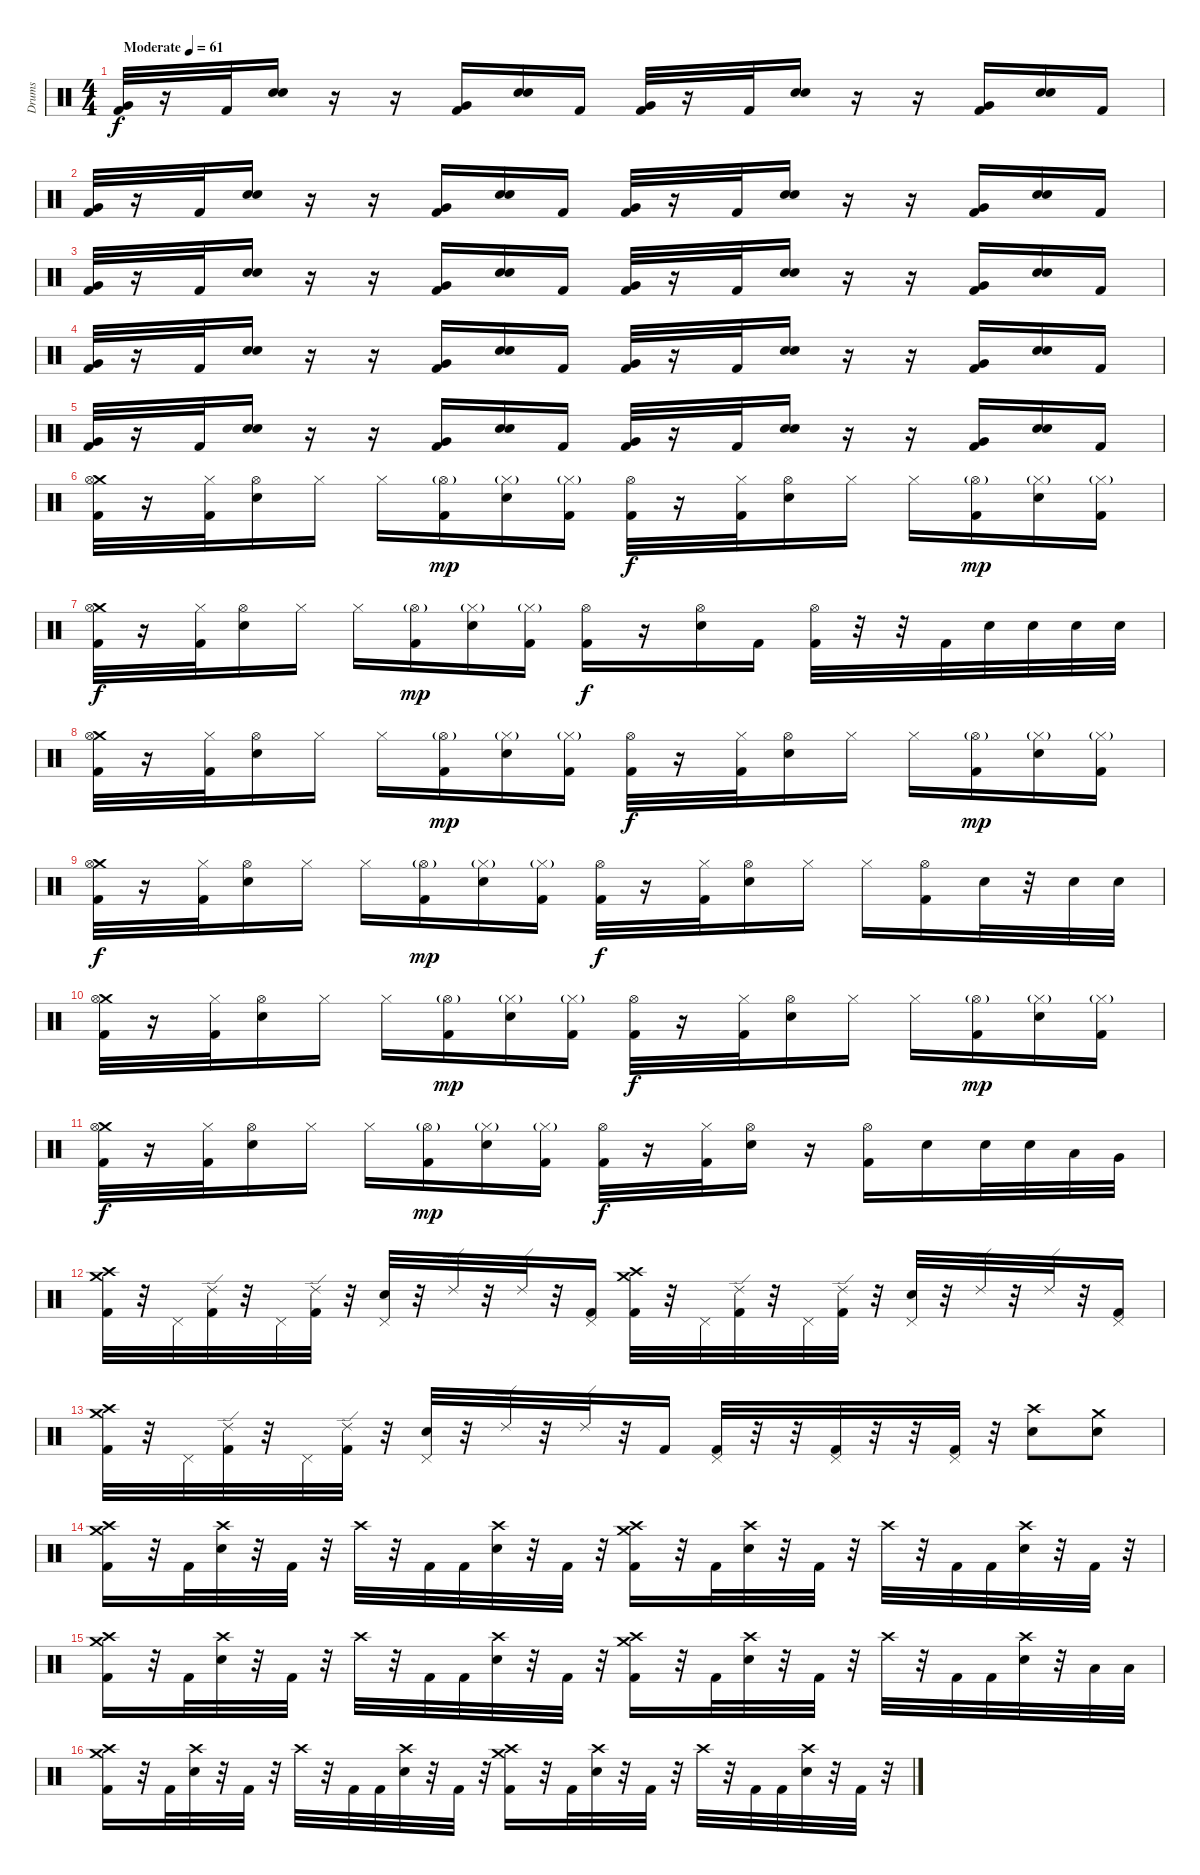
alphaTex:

\track ("Drums" "Drums") {instrument percussion}
\staff {score}
\articulation defaults
\ts (4 4)
\tempo (61 "Moderate")
\clef neutral
\ks c
("Very Low Tom (hit)" "Kick (hit) 2").32{dy f} r.16 "Kick (hit) 2".32 ("Electric Snare (hit)" "Electric Snare (hit)").16 r.16 r.16 ("Very Low Tom (hit)" "Kick (hit) 2").16 ("Electric Snare (hit)" "Electric Snare (hit)").16 "Kick (hit) 2".16 ("Very Low Tom (hit)" "Kick (hit) 2").32 r.16 "Kick (hit) 2".32 ("Electric Snare (hit)" "Electric Snare (hit)").16 r.16 r.16 ("Very Low Tom (hit)" "Kick (hit) 2").16 ("Electric Snare (hit)" "Electric Snare (hit)").16 "Kick (hit) 2".16 |
("Very Low Tom (hit)" "Kick (hit) 2").32 r.16 "Kick (hit) 2".32 ("Electric Snare (hit)" "Electric Snare (hit)").16 r.16 r.16 ("Very Low Tom (hit)" "Kick (hit) 2").16 ("Electric Snare (hit)" "Electric Snare (hit)").16 "Kick (hit) 2".16 ("Very Low Tom (hit)" "Kick (hit) 2").32 r.16 "Kick (hit) 2".32 ("Electric Snare (hit)" "Electric Snare (hit)").16 r.16 r.16 ("Very Low Tom (hit)" "Kick (hit) 2").16 ("Electric Snare (hit)" "Electric Snare (hit)").16 "Kick (hit) 2".16 |
("Very Low Tom (hit)" "Kick (hit) 2").32 r.16 "Kick (hit) 2".32 ("Electric Snare (hit)" "Electric Snare (hit)").16 r.16 r.16 ("Very Low Tom (hit)" "Kick (hit) 2").16 ("Electric Snare (hit)" "Electric Snare (hit)").16 "Kick (hit) 2".16 ("Very Low Tom (hit)" "Kick (hit) 2").32 r.16 "Kick (hit) 2".32 ("Electric Snare (hit)" "Electric Snare (hit)").16 r.16 r.16 ("Very Low Tom (hit)" "Kick (hit) 2").16 ("Electric Snare (hit)" "Electric Snare (hit)").16 "Kick (hit) 2".16 |
("Very Low Tom (hit)" "Kick (hit) 2").32 r.16 "Kick (hit) 2".32 ("Electric Snare (hit)" "Electric Snare (hit)").16 r.16 r.16 ("Very Low Tom (hit)" "Kick (hit) 2").16 ("Electric Snare (hit)" "Electric Snare (hit)").16 "Kick (hit) 2".16 ("Very Low Tom (hit)" "Kick (hit) 2").32 r.16 "Kick (hit) 2".32 ("Electric Snare (hit)" "Electric Snare (hit)").16 r.16 r.16 ("Very Low Tom (hit)" "Kick (hit) 2").16 ("Electric Snare (hit)" "Electric Snare (hit)").16 "Kick (hit) 2".16 |
("Very Low Tom (hit)" "Kick (hit) 2").32 r.16 "Kick (hit) 2".32 ("Electric Snare (hit)" "Electric Snare (hit)").16 r.16 r.16 ("Very Low Tom (hit)" "Kick (hit) 2").16 ("Electric Snare (hit)" "Electric Snare (hit)").16 "Kick (hit) 2".16 ("Very Low Tom (hit)" "Kick (hit) 2").32 r.16 "Kick (hit) 2".32 ("Electric Snare (hit)" "Electric Snare (hit)").16 r.16 r.16 ("Very Low Tom (hit)" "Kick (hit) 2").16 ("Electric Snare (hit)" "Electric Snare (hit)").16 "Kick (hit) 2".16 |
("Crash medium (hit)" "Hi-Hat (open)" "Kick (hit) 2").32 r.16 ("Hi-Hat (closed)" "Kick (hit) 2").32 ("Hi-Hat (open)" "Electric Snare (hit)").16 "Hi-Hat (closed)".16 "Hi-Hat (closed)".16 ("Hi-Hat (open)"{g} "Kick (hit) 2").16{dy mp} ("Hi-Hat (closed)"{g} "Electric Snare (hit)").16 ("Hi-Hat (closed)"{g} "Kick (hit) 2").16 ("Hi-Hat (open)" "Kick (hit) 2").32{dy f} r.16 ("Hi-Hat (closed)" "Kick (hit) 2").32 ("Hi-Hat (open)" "Electric Snare (hit)").16 "Hi-Hat (closed)".16 "Hi-Hat (closed)".16 ("Hi-Hat (open)"{g} "Kick (hit) 2").16{dy mp} ("Hi-Hat (closed)"{g} "Electric Snare (hit)").16 ("Hi-Hat (closed)"{g} "Kick (hit) 2").16 |
("Crash medium (hit)" "Hi-Hat (open)" "Kick (hit) 2").32{dy f} r.16 ("Hi-Hat (closed)" "Kick (hit) 2").32 ("Hi-Hat (open)" "Electric Snare (hit)").16 "Hi-Hat (closed)".16 "Hi-Hat (closed)".16 ("Hi-Hat (open)"{g} "Kick (hit) 2").16{dy mp} ("Hi-Hat (closed)"{g} "Electric Snare (hit)").16 ("Hi-Hat (closed)"{g} "Kick (hit) 2").16 ("Hi-Hat (open)" "Kick (hit) 2").16{dy f} r.16 ("Hi-Hat (open)" "Electric Snare (hit)").16 "Kick (hit) 2".16 ("Hi-Hat (open)" "Kick (hit) 2").32 r.32 r.32 "Kick (hit) 2".32 "Electric Snare (hit)".32 "Electric Snare (hit)".32 "Electric Snare (hit)".32 "Electric Snare (hit)".32 |
("Crash medium (hit)" "Hi-Hat (open)" "Kick (hit) 2").32 r.16 ("Hi-Hat (closed)" "Kick (hit) 2").32 ("Hi-Hat (open)" "Electric Snare (hit)").16 "Hi-Hat (closed)".16 "Hi-Hat (closed)".16 ("Hi-Hat (open)"{g} "Kick (hit) 2").16{dy mp} ("Hi-Hat (closed)"{g} "Electric Snare (hit)").16 ("Hi-Hat (closed)"{g} "Kick (hit) 2").16 ("Hi-Hat (open)" "Kick (hit) 2").32{dy f} r.16 ("Hi-Hat (closed)" "Kick (hit) 2").32 ("Hi-Hat (open)" "Electric Snare (hit)").16 "Hi-Hat (closed)".16 "Hi-Hat (closed)".16 ("Hi-Hat (open)"{g} "Kick (hit) 2").16{dy mp} ("Hi-Hat (closed)"{g} "Electric Snare (hit)").16 ("Hi-Hat (closed)"{g} "Kick (hit) 2").16 |
("Crash medium (hit)" "Hi-Hat (open)" "Kick (hit) 2").32{dy f} r.16 ("Hi-Hat (closed)" "Kick (hit) 2").32 ("Hi-Hat (open)" "Electric Snare (hit)").16 "Hi-Hat (closed)".16 "Hi-Hat (closed)".16 ("Hi-Hat (open)"{g} "Kick (hit) 2").16{dy mp} ("Hi-Hat (closed)"{g} "Electric Snare (hit)").16 ("Hi-Hat (closed)"{g} "Kick (hit) 2").16 ("Hi-Hat (open)" "Kick (hit) 2").32{dy f} r.16 ("Hi-Hat (closed)" "Kick (hit) 2").32 ("Hi-Hat (open)" "Electric Snare (hit)").16 "Hi-Hat (closed)".16 "Hi-Hat (closed)".16 ("Hi-Hat (open)" "Kick (hit) 2").16 "Electric Snare (hit)".32 r.32 "Electric Snare (hit)".32 "Electric Snare (hit)".32 |
("Crash medium (hit)" "Hi-Hat (open)" "Kick (hit) 2").32 r.16 ("Hi-Hat (closed)" "Kick (hit) 2").32 ("Hi-Hat (open)" "Electric Snare (hit)").16 "Hi-Hat (closed)".16 "Hi-Hat (closed)".16 ("Hi-Hat (open)"{g} "Kick (hit) 2").16{dy mp} ("Hi-Hat (closed)"{g} "Electric Snare (hit)").16 ("Hi-Hat (closed)"{g} "Kick (hit) 2").16 ("Hi-Hat (open)" "Kick (hit) 2").32{dy f} r.16 ("Hi-Hat (closed)" "Kick (hit) 2").32 ("Hi-Hat (open)" "Electric Snare (hit)").16 "Hi-Hat (closed)".16 "Hi-Hat (closed)".16 ("Hi-Hat (open)"{g} "Kick (hit) 2").16{dy mp} ("Hi-Hat (closed)"{g} "Electric Snare (hit)").16 ("Hi-Hat (closed)"{g} "Kick (hit) 2").16 |
("Crash medium (hit)" "Hi-Hat (open)" "Kick (hit) 2").32{dy f} r.16 ("Hi-Hat (closed)" "Kick (hit) 2").32 ("Hi-Hat (open)" "Electric Snare (hit)").16 "Hi-Hat (closed)".16 "Hi-Hat (closed)".16 ("Hi-Hat (open)"{g} "Kick (hit) 2").16{dy mp} ("Hi-Hat (closed)"{g} "Electric Snare (hit)").16 ("Hi-Hat (closed)"{g} "Kick (hit) 2").16 ("Hi-Hat (open)" "Kick (hit) 2").32{dy f} r.16 ("Hi-Hat (closed)" "Kick (hit) 2").32 ("Hi-Hat (open)" "Electric Snare (hit)").16 r.16 ("Hi-Hat (open)" "Kick (hit) 2").16 "Electric Snare (hit)".16 "Electric Snare (hit)".32 "Electric Snare (hit)".32 "Low Tom (hit)".32 "Very Low Tom (hit)".32 |
("Crash high (hit)" "Crash medium (hit)" "Kick (hit) 2").32 r.32 "Pedal Hi-Hat (hit)".32 ("Ride (edge) 2" "Kick (hit) 2").32 r.32 "Pedal Hi-Hat (hit)".32 ("Ride (edge) 2" "Kick (hit) 2").32 r.32 ("Pedal Hi-Hat (hit)" "Electric Snare (hit)").32 r.32 "Ride (edge) 2".32 r.32 "Ride (edge) 2".32 r.32 ("Pedal Hi-Hat (hit)" "Kick (hit) 2").16 ("Crash high (hit)" "Crash medium (hit)" "Kick (hit) 2").32 r.32 "Pedal Hi-Hat (hit)".32 ("Ride (edge) 2" "Kick (hit) 2").32 r.32 "Pedal Hi-Hat (hit)".32 ("Ride (edge) 2" "Kick (hit) 2").32 r.32 ("Pedal Hi-Hat (hit)" "Electric Snare (hit)").32 r.32 "Ride (edge) 2".32 r.32 "Ride (edge) 2".32 r.32 ("Pedal Hi-Hat (hit)" "Kick (hit) 2").16 |
("Crash high (hit)" "Crash medium (hit)" "Kick (hit) 2").32 r.32 "Pedal Hi-Hat (hit)".32 ("Ride (edge) 2" "Kick (hit) 2").32 r.32 "Pedal Hi-Hat (hit)".32 ("Ride (edge) 2" "Kick (hit) 2").32 r.32 ("Pedal Hi-Hat (hit)" "Electric Snare (hit)").32 r.32 "Ride (edge) 2".32 r.32 "Ride (edge) 2".32 r.32 "Kick (hit) 2".16 ("Pedal Hi-Hat (hit)" "Kick (hit) 2").32 r.32 r.32 ("Pedal Hi-Hat (hit)" "Kick (hit) 2").32 r.32 r.32 ("Pedal Hi-Hat (hit)" "Kick (hit) 2").32 r.32 ("Crash high (hit)" "Electric Snare (hit)").8 ("Crash medium (hit)" "Electric Snare (hit)").8 |
("Crash high (hit)" "Crash medium (hit)" "Kick (hit) 2").16 r.32 "Kick (hit) 2".32 ("Crash high (hit)" "Electric Snare (hit)").32 r.32 "Kick (hit) 2".32 r.32 "Crash high (hit)".32 r.32 "Kick (hit) 2".32 "Kick (hit) 2".32 ("Crash high (hit)" "Electric Snare (hit)").32 r.32 "Kick (hit) 2".32 r.32 ("Crash high (hit)" "Crash medium (hit)" "Kick (hit) 2").16 r.32 "Kick (hit) 2".32 ("Crash high (hit)" "Electric Snare (hit)").32 r.32 "Kick (hit) 2".32 r.32 "Crash high (hit)".32 r.32 "Kick (hit) 2".32 "Kick (hit) 2".32 ("Crash high (hit)" "Electric Snare (hit)").32 r.32 "Kick (hit) 2".32 r.32 |
("Crash high (hit)" "Crash medium (hit)" "Kick (hit) 2").16 r.32 "Kick (hit) 2".32 ("Crash high (hit)" "Electric Snare (hit)").32 r.32 "Kick (hit) 2".32 r.32 "Crash high (hit)".32 r.32 "Kick (hit) 2".32 "Kick (hit) 2".32 ("Crash high (hit)" "Electric Snare (hit)").32 r.32 "Kick (hit) 2".32 r.32 ("Crash high (hit)" "Crash medium (hit)" "Kick (hit) 2").16 r.32 "Kick (hit) 2".32 ("Crash high (hit)" "Electric Snare (hit)").32 r.32 "Kick (hit) 2".32 r.32 "Crash high (hit)".32 r.32 "Kick (hit) 2".32 "Kick (hit) 2".32 ("Crash high (hit)" "Electric Snare (hit)").32 r.32 "Low Tom (hit)".32 "Low Tom (hit)".32 |
("Crash high (hit)" "Crash medium (hit)" "Kick (hit) 2").16 r.32 "Kick (hit) 2".32 ("Crash high (hit)" "Electric Snare (hit)").32 r.32 "Kick (hit) 2".32 r.32 "Crash high (hit)".32 r.32 "Kick (hit) 2".32 "Kick (hit) 2".32 ("Crash high (hit)" "Electric Snare (hit)").32 r.32 "Kick (hit) 2".32 r.32 ("Crash high (hit)" "Crash medium (hit)" "Kick (hit) 2").16 r.32 "Kick (hit) 2".32 ("Crash high (hit)" "Electric Snare (hit)").32 r.32 "Kick (hit) 2".32 r.32 "Crash high (hit)".32 r.32 "Kick (hit) 2".32 "Kick (hit) 2".32 ("Crash high (hit)" "Electric Snare (hit)").32 r.32 "Kick (hit) 2".32 r.32
